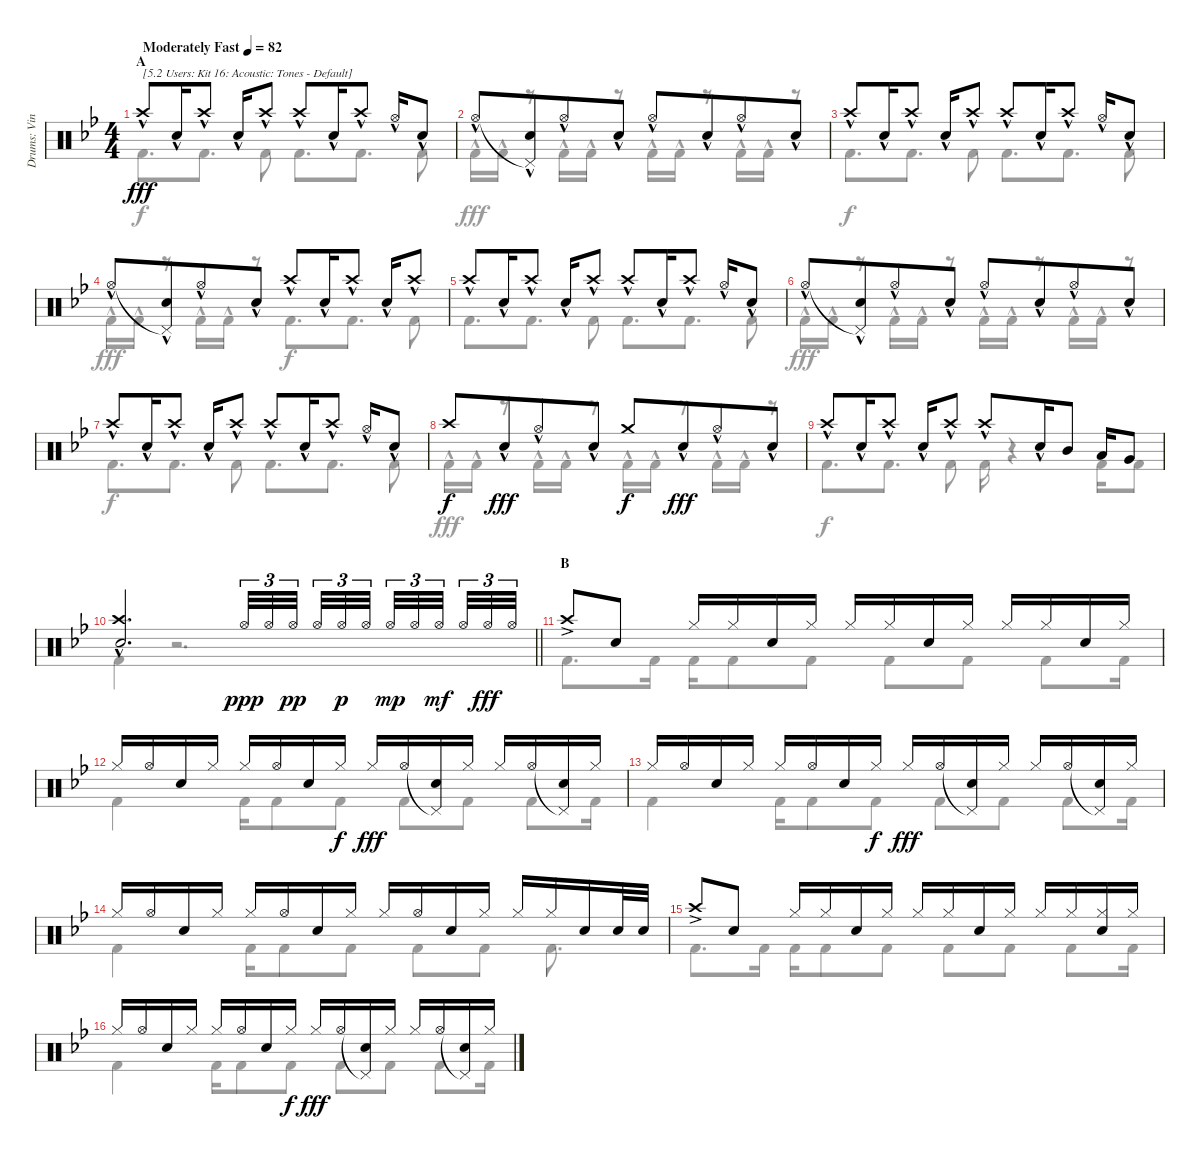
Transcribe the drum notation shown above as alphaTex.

\track ("Drums: Vinny" "Drums: Vin") {instrument percussion}
\staff {score}
\articulation defaults
\voice
\ts (4 4)
\section ("" "A")
\tempo (82 "Moderately Fast")
\clef neutral
\ks bb "Crash high (hit)"{hac}.8{txt "[5.2 Users: Kit 16: Acoustic: Tones - Default]" dy fff} "Snare (hit) 2"{hac}.16 "Crash high (hit)"{hac}.8 "Snare (hit) 2"{hac}.16 "Crash high (hit)"{hac}.8 "Crash high (hit)"{hac}.8 "Snare (hit) 2"{hac}.16 "Crash high (hit)"{hac}.8 "Hi-Hat (open)"{hac}.16 "Snare (hit) 2"{hac}.8
|
"Hi-Hat (open)"{hac}.8 ("Pedal Hi-Hat (hit)"{t} "Snare (hit) 2"{hac}).8{beam merge} "Hi-Hat (open)"{hac}.8 "Snare (hit) 2"{hac}.8 "Hi-Hat (open)"{hac}.8 "Snare (hit) 2"{hac}.8{beam merge} "Hi-Hat (open)"{hac}.8 "Snare (hit) 2"{hac}.8 |
"Crash high (hit)"{hac}.8 "Snare (hit) 2"{hac}.16 "Crash high (hit)"{hac}.8 "Snare (hit) 2"{hac}.16 "Crash high (hit)"{hac}.8 "Crash high (hit)"{hac}.8 "Snare (hit) 2"{hac}.16 "Crash high (hit)"{hac}.8 "Hi-Hat (open)"{hac}.16 "Snare (hit) 2"{hac}.8 |
"Hi-Hat (open)"{hac}.8 ("Pedal Hi-Hat (hit)"{t} "Snare (hit) 2"{hac}).8{beam merge} "Hi-Hat (open)"{hac}.8 "Snare (hit) 2"{hac}.8 "Crash high (hit)"{hac}.8 "Snare (hit) 2"{hac}.16 "Crash high (hit)"{hac}.8 "Snare (hit) 2"{hac}.16 "Crash high (hit)"{hac}.8 |
"Crash high (hit)"{hac}.8 "Snare (hit) 2"{hac}.16 "Crash high (hit)"{hac}.8 "Snare (hit) 2"{hac}.16 "Crash high (hit)"{hac}.8 "Crash high (hit)"{hac}.8 "Snare (hit) 2"{hac}.16 "Crash high (hit)"{hac}.8 "Hi-Hat (open)"{hac}.16 "Snare (hit) 2"{hac}.8 |
"Hi-Hat (open)"{hac}.8 ("Pedal Hi-Hat (hit)"{t} "Snare (hit) 2"{hac}).8{beam merge} "Hi-Hat (open)"{hac}.8 "Snare (hit) 2"{hac}.8 "Hi-Hat (open)"{hac}.8 "Snare (hit) 2"{hac}.8{beam merge} "Hi-Hat (open)"{hac}.8 "Snare (hit) 2"{hac}.8 |
"Crash high (hit)"{hac}.8 "Snare (hit) 2"{hac}.16 "Crash high (hit)"{hac}.8 "Snare (hit) 2"{hac}.16 "Crash high (hit)"{hac}.8 "Crash high (hit)"{hac}.8 "Snare (hit) 2"{hac}.16 "Crash high (hit)"{hac}.8 "Hi-Hat (open)"{hac}.16 "Snare (hit) 2"{hac}.8 |
"Crash high (hit)".8{dy f} "Snare (hit) 2"{hac}.8{dy fff beam merge} "Hi-Hat (open)"{hac}.8 "Snare (hit) 2"{hac}.8 "Crash medium (hit)".8{dy f} "Snare (hit) 2"{hac}.8{dy fff beam merge} "Hi-Hat (open)"{hac}.8 "Snare (hit) 2"{hac}.8 |
"Crash high (hit)"{hac}.8 "Snare (hit) 2"{hac}.16 "Crash high (hit)"{hac}.8 "Snare (hit) 2"{hac}.16 "Crash high (hit)"{hac}.8 "Crash high (hit)"{hac}.8 "Snare (hit) 2"{hac}.16 "Mid Tom (hit)".8 "Low Tom (hit)".16 "Very Low Tom (hit)".8 |
\barLineRight lightlight
("Crash high (hit)"{hac} "Snare (hit) 2"{hac}).2{d} "Hi-Hat (open)".32{tu (3 2) dy ppp} "Hi-Hat (open)".32{tu (3 2)} "Hi-Hat (open)".32{tu (3 2) dy pp beam splitsecondary} "Hi-Hat (open)".32{tu (3 2)} "Hi-Hat (open)".32{tu (3 2) dy p} "Hi-Hat (open)".32{tu (3 2) beam splitsecondary} "Hi-Hat (open)".32{tu (3 2) dy mp} "Hi-Hat (open)".32{tu (3 2)} "Hi-Hat (open)".32{tu (3 2) dy mf beam splitsecondary} "Hi-Hat (open)".32{tu (3 2)} "Hi-Hat (open)".32{tu (3 2) dy fff} "Hi-Hat (open)".32{tu (3 2)} |
\section ("" "B")
"Crash high (hit)"{ac}.8 "Snare (hit) 2".8 "Hi-Hat (closed)".16 "Hi-Hat (closed)".16 "Snare (hit) 2".16 "Hi-Hat (closed)".16 "Hi-Hat (closed)".16 "Hi-Hat (closed)".16 "Snare (hit) 2".16 "Hi-Hat (closed)".16 "Hi-Hat (closed)".16 "Hi-Hat (closed)".16 "Snare (hit) 2".16 "Hi-Hat (closed)".16 |
"Hi-Hat (closed)".16 "Hi-Hat (open)".16 "Snare (hit) 2".16 "Hi-Hat (closed)".16 "Hi-Hat (closed)".16 "Hi-Hat (open)".16 "Snare (hit) 2".16 "Hi-Hat (closed)".16{dy f} "Hi-Hat (closed)".16{dy fff} "Hi-Hat (open)".16 ("Pedal Hi-Hat (hit)"{t} "Snare (hit) 2").16 "Hi-Hat (closed)".16 "Hi-Hat (closed)".16 "Hi-Hat (open)".16 ("Pedal Hi-Hat (hit)"{t} "Snare (hit) 2").16 "Hi-Hat (closed)".16 |
"Hi-Hat (closed)".16 "Hi-Hat (open)".16 "Snare (hit) 2".16 "Hi-Hat (closed)".16 "Hi-Hat (closed)".16 "Hi-Hat (open)".16 "Snare (hit) 2".16 "Hi-Hat (closed)".16{dy f} "Hi-Hat (closed)".16{dy fff} "Hi-Hat (open)".16 ("Pedal Hi-Hat (hit)"{t} "Snare (hit) 2").16 "Hi-Hat (closed)".16 "Hi-Hat (closed)".16 "Hi-Hat (open)".16 ("Pedal Hi-Hat (hit)"{t} "Snare (hit) 2").16 "Hi-Hat (closed)".16 |
"Hi-Hat (closed)".16 "Hi-Hat (open)".16 "Snare (hit) 2".16 "Hi-Hat (closed)".16 "Hi-Hat (closed)".16 "Hi-Hat (open)".16 "Snare (hit) 2".16 "Hi-Hat (closed)".16 "Hi-Hat (closed)".16 "Hi-Hat (open)".16 "Snare (hit) 2".16 "Hi-Hat (closed)".16 "Hi-Hat (closed)".16 "Hi-Hat (closed)".16 "Snare (hit) 2".16 "Snare (hit) 2".32 "Snare (hit) 2".32 |
"Crash high (hit)"{ac}.8 "Snare (hit) 2".8 "Hi-Hat (closed)".16 "Hi-Hat (closed)".16 "Snare (hit) 2".16 "Hi-Hat (closed)".16 "Hi-Hat (closed)".16 "Hi-Hat (closed)".16 "Snare (hit) 2".16 "Hi-Hat (closed)".16 "Hi-Hat (closed)".16 "Hi-Hat (closed)".16 ("Hi-Hat (closed)" "Snare (hit) 2").16 "Hi-Hat (closed)".16 |
"Hi-Hat (closed)".16 "Hi-Hat (open)".16 "Snare (hit) 2".16 "Hi-Hat (closed)".16 "Hi-Hat (closed)".16 "Hi-Hat (open)".16 "Snare (hit) 2".16 "Hi-Hat (closed)".16{dy f} "Hi-Hat (closed)".16{dy fff} "Hi-Hat (open)".16 ("Pedal Hi-Hat (hit)"{t} "Snare (hit) 2").16 "Hi-Hat (closed)".16 "Hi-Hat (closed)".16 "Hi-Hat (open)".16 ("Pedal Hi-Hat (hit)"{t} "Snare (hit) 2").16 "Hi-Hat (closed)".16
\voice
\clef neutral
\ottava regular
\simile none
\ks bb "Kick (hit) 2".8{d dy f} "Kick (hit) 2".8{d} "Kick (hit) 2".8 "Kick (hit) 2".8{d} "Kick (hit) 2".8{d} "Kick (hit) 2".8
|
"Kick (hit) 2"{hac}.16{dy fff} "Kick (hit) 2"{hac}.16 r.8 "Kick (hit) 2"{hac}.16 "Kick (hit) 2"{hac}.16 r.8 "Kick (hit) 2"{hac}.16 "Kick (hit) 2"{hac}.16 r.8 "Kick (hit) 2"{hac}.16 "Kick (hit) 2"{hac}.16 r.8 |
"Kick (hit) 2".8{d dy f} "Kick (hit) 2".8{d} "Kick (hit) 2".8 "Kick (hit) 2".8{d} "Kick (hit) 2".8{d} "Kick (hit) 2".8 |
"Kick (hit) 2"{hac}.16{dy fff} "Kick (hit) 2"{hac}.16 r.8 "Kick (hit) 2"{hac}.16 "Kick (hit) 2"{hac}.16 r.8 "Kick (hit) 2".8{d dy f} "Kick (hit) 2".8{d} "Kick (hit) 2".8 |
"Kick (hit) 2".8{d} "Kick (hit) 2".8{d} "Kick (hit) 2".8 "Kick (hit) 2".8{d} "Kick (hit) 2".8{d} "Kick (hit) 2".8 |
"Kick (hit) 2"{hac}.16{dy fff} "Kick (hit) 2"{hac}.16 r.8 "Kick (hit) 2"{hac}.16 "Kick (hit) 2"{hac}.16 r.8 "Kick (hit) 2"{hac}.16 "Kick (hit) 2"{hac}.16 r.8 "Kick (hit) 2"{hac}.16 "Kick (hit) 2"{hac}.16 r.8 |
"Kick (hit) 2".8{d dy f} "Kick (hit) 2".8{d} "Kick (hit) 2".8 "Kick (hit) 2".8{d} "Kick (hit) 2".8{d} "Kick (hit) 2".8 |
"Kick (hit) 2"{hac}.16{dy fff} "Kick (hit) 2"{hac}.16 r.8 "Kick (hit) 2"{hac}.16 "Kick (hit) 2"{hac}.16 r.8 "Kick (hit) 2"{hac}.16 "Kick (hit) 2"{hac}.16 r.8 "Kick (hit) 2"{hac}.16 "Kick (hit) 2"{hac}.16 r.8 |
"Kick (hit) 2".8{d dy f} "Kick (hit) 2".8{d} "Kick (hit) 2".8 "Kick (hit) 2".16 r.4 "Kick (hit) 2".16 "Kick (hit) 2".8 |
\barLineRight lightlight "Kick (hit) 2".4
r.2{d} |
"Kick (hit) 2".8{d} "Kick (hit) 2".16 "Kick (hit) 2".16 "Kick (hit) 2".8 "Kick (hit) 2".8 "Kick (hit) 2".8 "Kick (hit) 2".8 "Kick (hit) 2".8 "Kick (hit) 2".16 |
"Kick (hit) 2".4 "Kick (hit) 2".16 "Kick (hit) 2".8 "Kick (hit) 2".8 "Kick (hit) 2".8 "Kick (hit) 2".8 "Kick (hit) 2".8 "Kick (hit) 2".16 |
"Kick (hit) 2".4 "Kick (hit) 2".16 "Kick (hit) 2".8 "Kick (hit) 2".8 "Kick (hit) 2".8 "Kick (hit) 2".8 "Kick (hit) 2".8 "Kick (hit) 2".16 |
"Kick (hit) 2".4 "Kick (hit) 2".16 "Kick (hit) 2".8 "Kick (hit) 2".8 "Kick (hit) 2".8 "Kick (hit) 2".8 "Kick (hit) 2".8{d} |
"Kick (hit) 2".8{d} "Kick (hit) 2".16 "Kick (hit) 2".16 "Kick (hit) 2".8 "Kick (hit) 2".8 "Kick (hit) 2".8 "Kick (hit) 2".8 "Kick (hit) 2".8 "Kick (hit) 2".16 |
"Kick (hit) 2".4 "Kick (hit) 2".16 "Kick (hit) 2".8 "Kick (hit) 2".8 "Kick (hit) 2".8 "Kick (hit) 2".8 "Kick (hit) 2".8 "Kick (hit) 2".16
